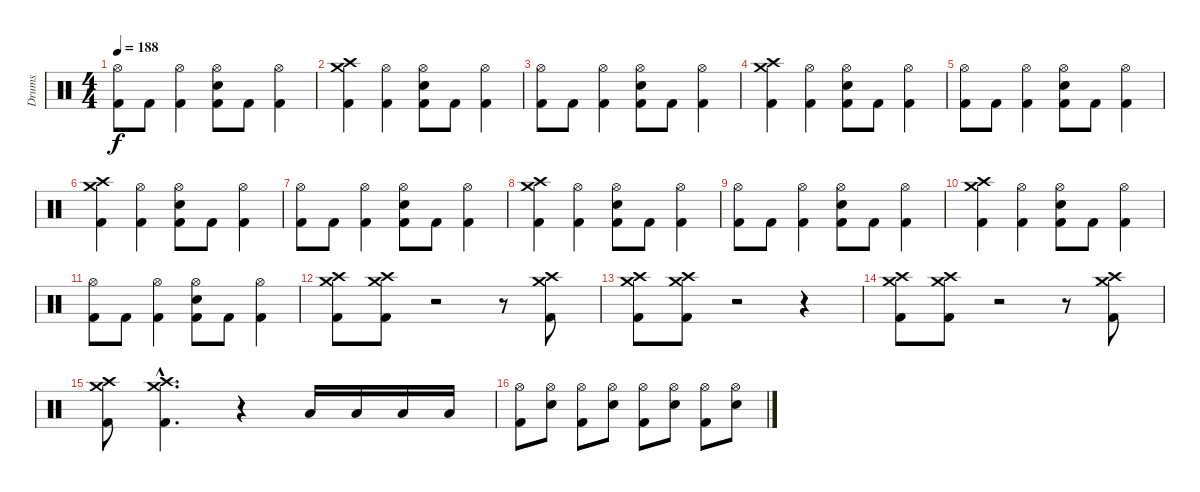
\track ("Drums" "Drums") {instrument percussion}
\staff {score}
\articulation defaults
\ts (4 4)
\tempo 188
\clef neutral
\ks c
("Hi-Hat (open)" "Kick (hit) 2").8{dy f} "Kick (hit) 2".8 ("Hi-Hat (open)" "Kick (hit) 2").4 ("Hi-Hat (open)" "Snare (hit) 2" "Kick (hit) 2").8 "Kick (hit) 2".8 ("Hi-Hat (open)" "Kick (hit) 2").4 |
("Crash medium (hit)" "Crash high (hit)" "Kick (hit) 2").4 ("Hi-Hat (open)" "Kick (hit) 2").4 ("Hi-Hat (open)" "Snare (hit) 2" "Kick (hit) 2").8 "Kick (hit) 2".8 ("Hi-Hat (open)" "Kick (hit) 2").4 |
("Hi-Hat (open)" "Kick (hit) 2").8 "Kick (hit) 2".8 ("Hi-Hat (open)" "Kick (hit) 2").4 ("Hi-Hat (open)" "Snare (hit) 2" "Kick (hit) 2").8 "Kick (hit) 2".8 ("Hi-Hat (open)" "Kick (hit) 2").4 |
("Crash medium (hit)" "Crash high (hit)" "Kick (hit) 2").4 ("Hi-Hat (open)" "Kick (hit) 2").4 ("Hi-Hat (open)" "Snare (hit) 2" "Kick (hit) 2").8 "Kick (hit) 2".8 ("Hi-Hat (open)" "Kick (hit) 2").4 |
("Hi-Hat (open)" "Kick (hit) 2").8 "Kick (hit) 2".8 ("Hi-Hat (open)" "Kick (hit) 2").4 ("Hi-Hat (open)" "Snare (hit) 2" "Kick (hit) 2").8 "Kick (hit) 2".8 ("Hi-Hat (open)" "Kick (hit) 2").4 |
("Crash medium (hit)" "Crash high (hit)" "Kick (hit) 2").4 ("Hi-Hat (open)" "Kick (hit) 2").4 ("Hi-Hat (open)" "Snare (hit) 2" "Kick (hit) 2").8 "Kick (hit) 2".8 ("Hi-Hat (open)" "Kick (hit) 2").4 |
("Hi-Hat (open)" "Kick (hit) 2").8 "Kick (hit) 2".8 ("Hi-Hat (open)" "Kick (hit) 2").4 ("Hi-Hat (open)" "Snare (hit) 2" "Kick (hit) 2").8 "Kick (hit) 2".8 ("Hi-Hat (open)" "Kick (hit) 2").4 |
("Crash medium (hit)" "Crash high (hit)" "Kick (hit) 2").4 ("Hi-Hat (open)" "Kick (hit) 2").4 ("Hi-Hat (open)" "Snare (hit) 2" "Kick (hit) 2").8 "Kick (hit) 2".8 ("Hi-Hat (open)" "Kick (hit) 2").4 |
("Hi-Hat (open)" "Kick (hit) 2").8 "Kick (hit) 2".8 ("Hi-Hat (open)" "Kick (hit) 2").4 ("Hi-Hat (open)" "Snare (hit) 2" "Kick (hit) 2").8 "Kick (hit) 2".8 ("Hi-Hat (open)" "Kick (hit) 2").4 |
("Crash medium (hit)" "Crash high (hit)" "Kick (hit) 2").4 ("Hi-Hat (open)" "Kick (hit) 2").4 ("Hi-Hat (open)" "Snare (hit) 2" "Kick (hit) 2").8 "Kick (hit) 2".8 ("Hi-Hat (open)" "Kick (hit) 2").4 |
("Hi-Hat (open)" "Kick (hit) 2").8 "Kick (hit) 2".8 ("Hi-Hat (open)" "Kick (hit) 2").4 ("Hi-Hat (open)" "Snare (hit) 2" "Kick (hit) 2").8 "Kick (hit) 2".8 ("Hi-Hat (open)" "Kick (hit) 2").4 |
("Crash medium (hit)" "Crash high (hit)" "Kick (hit) 2").8 ("Crash medium (hit)" "Crash high (hit)" "Kick (hit) 2").8 r.2 r.8 ("Crash medium (hit)" "Crash high (hit)" "Kick (hit) 2").8 |
("Crash medium (hit)" "Crash high (hit)" "Kick (hit) 2").8 ("Crash medium (hit)" "Crash high (hit)" "Kick (hit) 2").8 r.2 r.4 |
("Crash medium (hit)" "Crash high (hit)" "Kick (hit) 2").8 ("Crash medium (hit)" "Crash high (hit)" "Kick (hit) 2").8 r.2 r.8 ("Crash medium (hit)" "Crash high (hit)" "Kick (hit) 2").8 |
("Crash medium (hit)" "Crash high (hit)" "Kick (hit) 2").8 ("Crash medium (hit)"{hac} "Crash high (hit)"{hac} "Kick (hit) 2"{hac}).4{d} r.4 "Low Tom (hit)".16 "Low Tom (hit)".16 "Low Tom (hit)".16 "Low Tom (hit)".16 |
("Hi-Hat (open)" "Kick (hit) 2").8 ("Hi-Hat (open)" "Snare (hit) 2").8 ("Hi-Hat (open)" "Kick (hit) 2").8 ("Hi-Hat (open)" "Snare (hit) 2").8 ("Hi-Hat (open)" "Kick (hit) 2").8 ("Hi-Hat (open)" "Snare (hit) 2").8 ("Hi-Hat (open)" "Kick (hit) 2").8 ("Hi-Hat (open)" "Snare (hit) 2").8
